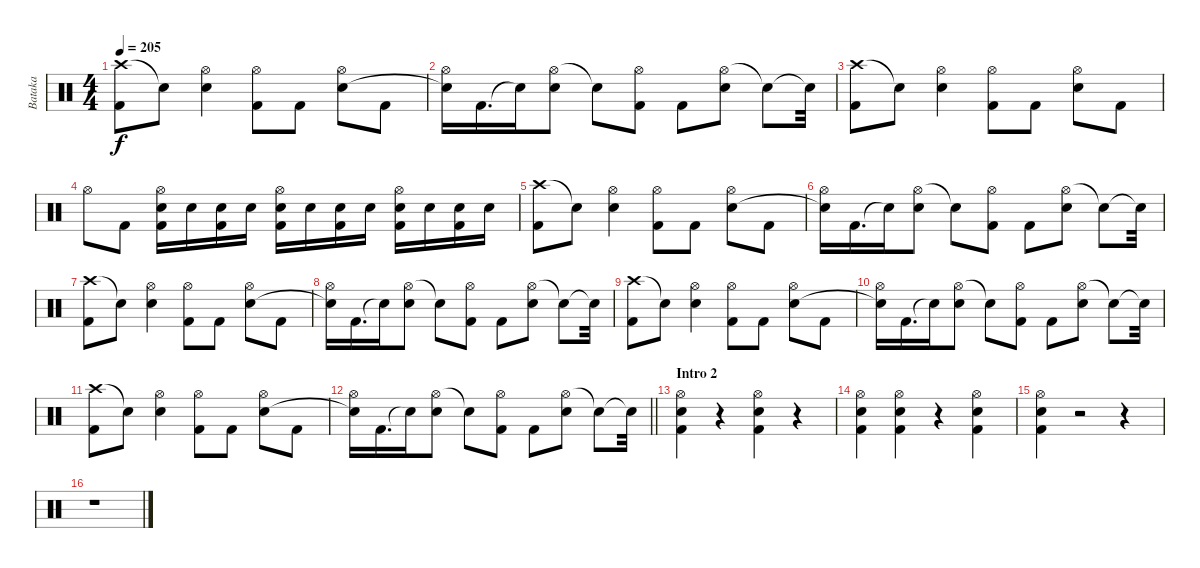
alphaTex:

\track ("Bataka" "Bataka") {instrument percussion}
\staff {score}
\articulation defaults
\ts (4 4)
\tempo 205
\clef neutral
\ks c
("Crash high (hit)" "Kick (hit) 2").8{dy f} "Snare (hit)"{t}.8 ("Hi-Hat (open)" "Snare (hit) 2").4 ("Hi-Hat (open)" "Kick (hit) 2").8 "Kick (hit) 2".8 ("Hi-Hat (open)" "Snare (hit) 2").8 "Kick (hit) 2".8 |
("Hi-Hat (open)" "Snare (hit)"{t}).16 "Kick (hit) 2".16{d} "Snare (hit)"{t}.16 ("Hi-Hat (open)" "Snare (hit) 2").8 "Snare (hit)"{t}.8 ("Hi-Hat (open)" "Kick (hit) 2").8 "Kick (hit) 2".8 ("Hi-Hat (open)" "Snare (hit) 2").8 "Snare (hit)"{t}.8 "Snare (hit)"{t}.32 |
("Crash high (hit)" "Kick (hit) 2").8 "Snare (hit)"{t}.8 ("Hi-Hat (open)" "Snare (hit) 2").4 ("Hi-Hat (open)" "Kick (hit) 2").8 "Kick (hit) 2".8 ("Hi-Hat (open)" "Snare (hit) 2").8 "Kick (hit) 2".8 |
"Hi-Hat (open)".8 "Kick (hit) 2".8 ("Hi-Hat (open)" "Snare (hit) 2" "Kick (hit) 2").16 "Snare (hit) 2".16 ("Snare (hit) 2" "Kick (hit) 2").16 "Snare (hit) 2".16 ("Hi-Hat (open)" "Snare (hit) 2" "Kick (hit) 2").16 "Snare (hit) 2".16 ("Snare (hit) 2" "Kick (hit) 2").16 "Snare (hit) 2".16 ("Hi-Hat (open)" "Snare (hit) 2" "Kick (hit) 2").16 "Snare (hit) 2".16 ("Snare (hit) 2" "Kick (hit) 2").16 "Snare (hit) 2".16 |
("Crash high (hit)" "Kick (hit) 2").8 "Snare (hit)"{t}.8 ("Hi-Hat (open)" "Snare (hit) 2").4 ("Hi-Hat (open)" "Kick (hit) 2").8 "Kick (hit) 2".8 ("Hi-Hat (open)" "Snare (hit) 2").8 "Kick (hit) 2".8 |
("Hi-Hat (open)" "Snare (hit)"{t}).16 "Kick (hit) 2".16{d} "Snare (hit)"{t}.16 ("Hi-Hat (open)" "Snare (hit) 2").8 "Snare (hit)"{t}.8 ("Hi-Hat (open)" "Kick (hit) 2").8 "Kick (hit) 2".8 ("Hi-Hat (open)" "Snare (hit) 2").8 "Snare (hit)"{t}.8 "Snare (hit)"{t}.32 |
("Crash high (hit)" "Kick (hit) 2").8 "Snare (hit)"{t}.8 ("Hi-Hat (open)" "Snare (hit) 2").4 ("Hi-Hat (open)" "Kick (hit) 2").8 "Kick (hit) 2".8 ("Hi-Hat (open)" "Snare (hit) 2").8 "Kick (hit) 2".8 |
("Hi-Hat (open)" "Snare (hit)"{t}).16 "Kick (hit) 2".16{d} "Snare (hit)"{t}.16 ("Hi-Hat (open)" "Snare (hit) 2").8 "Snare (hit)"{t}.8 ("Hi-Hat (open)" "Kick (hit) 2").8 "Kick (hit) 2".8 ("Hi-Hat (open)" "Snare (hit) 2").8 "Snare (hit)"{t}.8 "Snare (hit)"{t}.32 |
("Crash high (hit)" "Kick (hit) 2").8 "Snare (hit)"{t}.8 ("Hi-Hat (open)" "Snare (hit) 2").4 ("Hi-Hat (open)" "Kick (hit) 2").8 "Kick (hit) 2".8 ("Hi-Hat (open)" "Snare (hit) 2").8 "Kick (hit) 2".8 |
("Hi-Hat (open)" "Snare (hit)"{t}).16 "Kick (hit) 2".16{d} "Snare (hit)"{t}.16 ("Hi-Hat (open)" "Snare (hit) 2").8 "Snare (hit)"{t}.8 ("Hi-Hat (open)" "Kick (hit) 2").8 "Kick (hit) 2".8 ("Hi-Hat (open)" "Snare (hit) 2").8 "Snare (hit)"{t}.8 "Snare (hit)"{t}.32 |
("Crash high (hit)" "Kick (hit) 2").8 "Snare (hit)"{t}.8 ("Hi-Hat (open)" "Snare (hit) 2").4 ("Hi-Hat (open)" "Kick (hit) 2").8 "Kick (hit) 2".8 ("Hi-Hat (open)" "Snare (hit) 2").8 "Kick (hit) 2".8 |
\barLineRight lightlight
("Hi-Hat (open)" "Snare (hit)"{t}).16 "Kick (hit) 2".16{d} "Snare (hit)"{t}.16 ("Hi-Hat (open)" "Snare (hit) 2").8 "Snare (hit)"{t}.8 ("Hi-Hat (open)" "Kick (hit) 2").8 "Kick (hit) 2".8 ("Hi-Hat (open)" "Snare (hit) 2").8 "Snare (hit)"{t}.8 "Snare (hit)"{t}.32 |
\section ("" "Intro 2")
("Hi-Hat (open)" "Snare (hit) 2" "Kick (hit) 2").4 r.4 ("Hi-Hat (open)" "Snare (hit) 2" "Kick (hit) 2").4 r.4 |
("Snare (hit) 2" "Hi-Hat (open)" "Kick (hit) 2").4 ("Snare (hit) 2" "Hi-Hat (open)" "Kick (hit) 2").4 r.4 ("Hi-Hat (open)" "Snare (hit) 2" "Kick (hit) 2").4 |
("Hi-Hat (open)" "Snare (hit) 2" "Kick (hit) 2").4 r.2 r.4 |
r.1
